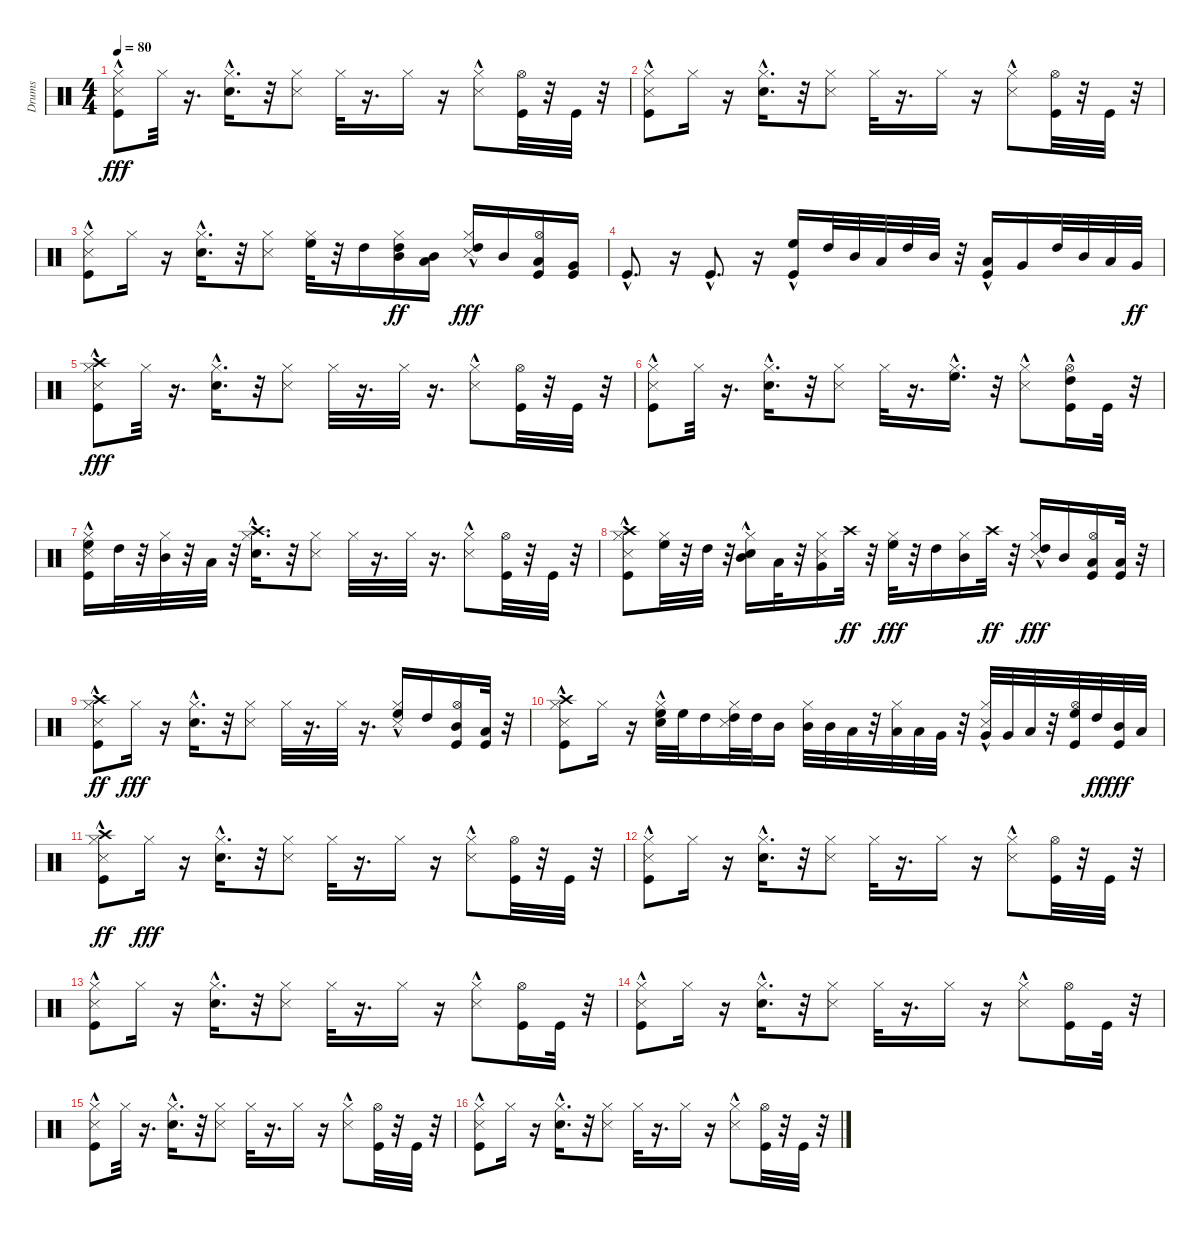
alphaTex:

\track ("Drums" "Drums") {instrument percussion}
\staff {score}
\articulation defaults
\ts (4 4)
\tempo 80
\clef neutral
\ks c
("Snare (side stick) 3" "Kick (hit)"{hac} "Hi-Hat (closed)").8{dy fff} "Hi-Hat (closed)".32 r.16{d} ("Electric Snare (hit)"{hac} "Hi-Hat (closed)").16{d} r.32 ("Snare (side stick) 3" "Hi-Hat (closed)").8 "Hi-Hat (closed)".32 r.16{d} "Hi-Hat (closed)".16 r.16 ("Snare (side stick) 3"{hac} "Hi-Hat (closed)").8 ("Hi-Hat (open)" "Kick (hit)").32 r.32 "Kick (hit)".32 r.32 |
("Snare (side stick) 3" "Kick (hit)"{hac} "Hi-Hat (closed)").8 "Hi-Hat (closed)".16 r.16 ("Hi-Hat (closed)" "Electric Snare (hit)"{hac}).16{d} r.32 ("Hi-Hat (closed)" "Snare (side stick) 3").8 "Hi-Hat (closed)".32 r.16{d} "Hi-Hat (closed)".16 r.16 ("Snare (side stick) 3"{hac} "Hi-Hat (closed)").8 ("Kick (hit)" "Hi-Hat (open)").32 r.32 "Kick (hit)".32 r.32 |
("Snare (side stick) 3" "Kick (hit)"{hac} "Hi-Hat (closed)").8 "Hi-Hat (closed)".16 r.16 ("Electric Snare (hit)"{hac} "Hi-Hat (closed)").16{d} r.32 ("Snare (side stick) 3" "Hi-Hat (closed)").8 ("Hi-Hat (closed)" "High Floor Tom (hit)").32 r.32 "High Tom (hit)".16 ("Mid Tom (hit)" "Hi-Hat (closed)" "High Tom (hit)").16{dy ff} ("Mid Tom (hit)" "Low Tom (hit)").16 ("Snare (side stick) 3"{hac} "Hi-Hat (closed)" "High Tom (hit)").16{dy fff} "Mid Tom (hit)".16 ("Kick (hit)" "Low Tom (hit)" "Hi-Hat (open)").16 ("Kick (hit)" "Very Low Tom (hit)").16 |
"Kick (hit)"{hac}.8{d} r.16 "Kick (hit)"{hac}.8{d} r.16 ("Kick (hit)"{hac} "High Floor Tom (hit)").16 "High Tom (hit)".32 "Mid Tom (hit)".32 "Low Tom (hit)".32 "High Tom (hit)".32 "Mid Tom (hit)".32 r.32 ("Low Tom (hit)" "Kick (hit)"{hac}).16 "Very Low Tom (hit)".16 "High Tom (hit)".32 "Mid Tom (hit)".32 "Low Tom (hit)".32 "Very Low Tom (hit)".32{dy ff} |
("Snare (side stick) 3" "Kick (hit)"{hac} "Hi-Hat (closed)" "Crash high (hit)"{hac}).8{dy fff} "Hi-Hat (closed)".32 r.16{d} ("Hi-Hat (closed)" "Electric Snare (hit)"{hac}).16{d} r.32 ("Snare (side stick) 3" "Hi-Hat (closed)").8 "Hi-Hat (closed)".32 r.16{d} "Hi-Hat (closed)".32 r.16{d} ("Hi-Hat (closed)" "Snare (side stick) 3"{hac}).8 ("Hi-Hat (open)" "Kick (hit)").32 r.32 "Kick (hit)".32 r.32 |
("Snare (side stick) 3" "Kick (hit)"{hac} "Hi-Hat (closed)").8 "Hi-Hat (closed)".32 r.16{d} ("Hi-Hat (closed)" "Electric Snare (hit)"{hac}).16{d} r.32 ("Snare (side stick) 3" "Hi-Hat (closed)").8 "Hi-Hat (closed)".32 r.16{d} ("High Floor Tom (hit)"{hac} "Hi-Hat (closed)").16{d} r.32 ("Snare (side stick) 3"{hac} "Hi-Hat (closed)").8 ("Hi-Hat (open)" "Kick (hit)" "High Tom (hit)"{hac}).16 "Kick (hit)".32 r.32 |
("Snare (side stick) 3" "Kick (hit)"{hac} "Hi-Hat (closed)" "High Floor Tom (hit)").16 "High Tom (hit)".32 r.32 ("Hi-Hat (closed)" "Mid Tom (hit)").32 r.32 "Low Tom (hit)".32 r.32 ("Crash high (hit)" "Electric Snare (hit)"{hac} "Hi-Hat (closed)").16{d} r.32 ("Snare (side stick) 3" "Hi-Hat (closed)").8 "Hi-Hat (closed)".32 r.16{d} "Hi-Hat (closed)".32 r.16{d} ("Snare (side stick) 3"{hac} "Hi-Hat (closed)").8 ("Hi-Hat (open)" "Kick (hit)").32 r.32 "Kick (hit)".32 r.32 |
("Snare (side stick) 3" "Kick (hit)"{hac} "Hi-Hat (closed)" "Crash high (hit)"{hac}).8 ("Hi-Hat (closed)" "High Floor Tom (hit)").32 r.32 "High Tom (hit)".32 r.32 ("Electric Snare (hit)"{hac} "Hi-Hat (closed)" "Mid Tom (hit)").16 "Low Tom (hit)".32 r.32 ("Snare (side stick) 3" "Hi-Hat (closed)" "Very Low Tom (hit)").16 "Crash high (hit)".32{dy ff} r.32 ("Hi-Hat (closed)" "High Floor Tom (hit)").32{dy fff} r.32 "High Tom (hit)".16 ("Hi-Hat (closed)" "Mid Tom (hit)").16 "Crash high (hit)".32{dy ff} r.32 ("Snare (side stick) 3"{hac} "Hi-Hat (closed)" "High Tom (hit)").16{dy fff} "Mid Tom (hit)".16 ("Low Tom (hit)" "Hi-Hat (open)" "Kick (hit)").16 ("Kick (hit)" "Low Tom (hit)").32 r.32 |
("Snare (side stick) 3" "Kick (hit)"{hac} "Hi-Hat (closed)" "Crash high (hit)"{hac}).8{dy ff} "Hi-Hat (closed)".16{dy fff} r.16 ("Electric Snare (hit)"{hac} "Hi-Hat (closed)").16{d} r.32 ("Snare (side stick) 3" "Hi-Hat (closed)").8 "Hi-Hat (closed)".32 r.16{d} "Hi-Hat (closed)".32 r.16{d} ("High Floor Tom (hit)" "Snare (side stick) 3"{hac} "Hi-Hat (closed)").16 "High Tom (hit)".16 ("Hi-Hat (open)" "Kick (hit)" "Mid Tom (hit)").16 ("Kick (hit)" "Low Tom (hit)").32 r.32 |
("Snare (side stick) 3" "Kick (hit)"{hac} "Hi-Hat (closed)" "Crash high (hit)"{hac}).8 "Hi-Hat (closed)".16 r.16 ("High Floor Tom (hit)" "Electric Snare (hit)"{hac} "Hi-Hat (closed)").32 "High Floor Tom (hit)".32 "High Tom (hit)".16 ("Snare (side stick) 3" "Hi-Hat (closed)" "High Tom (hit)").32 "High Tom (hit)".32 "Mid Tom (hit)".16 ("Hi-Hat (closed)" "Mid Tom (hit)").32 "Mid Tom (hit)".32 "Low Tom (hit)".32 r.32 ("Hi-Hat (closed)" "Low Tom (hit)").32 "Low Tom (hit)".32 "Very Low Tom (hit)".32 r.32 ("Very Low Tom (hit)" "Snare (side stick) 3"{hac} "Hi-Hat (closed)").32 "Very Low Tom (hit)".32 "Low Floor Tom (hit)".32 r.32 ("Hi-Hat (open)" "Kick (hit)" "High Floor Tom (hit)").32 "High Tom (hit)".32{dy ff} ("Mid Tom (hit)" "Kick (hit)").32{dy fff} "Low Tom (hit)".32 |
("Snare (side stick) 3" "Kick (hit)"{hac} "Hi-Hat (closed)" "Crash high (hit)"{hac}).8{dy ff} "Hi-Hat (closed)".16{dy fff} r.16 ("Electric Snare (hit)"{hac} "Hi-Hat (closed)").16{d} r.32 ("Snare (side stick) 3" "Hi-Hat (closed)").8 "Hi-Hat (closed)".32 r.16{d} "Hi-Hat (closed)".16 r.16 ("Snare (side stick) 3"{hac} "Hi-Hat (closed)").8 ("Kick (hit)" "Hi-Hat (open)").32 r.32 "Kick (hit)".32 r.32 |
("Snare (side stick) 3" "Kick (hit)"{hac} "Hi-Hat (closed)").8 "Hi-Hat (closed)".16 r.16 ("Electric Snare (hit)"{hac} "Hi-Hat (closed)").16{d} r.32 ("Hi-Hat (closed)" "Snare (side stick) 3").8 "Hi-Hat (closed)".32 r.16{d} "Hi-Hat (closed)".16 r.16 ("Snare (side stick) 3"{hac} "Hi-Hat (closed)").8 ("Kick (hit)" "Hi-Hat (open)").32 r.32 "Kick (hit)".32 r.32 |
("Snare (side stick) 3" "Kick (hit)"{hac} "Hi-Hat (closed)").8 "Hi-Hat (closed)".16 r.16 ("Electric Snare (hit)"{hac} "Hi-Hat (closed)").16{d} r.32 ("Snare (side stick) 3" "Hi-Hat (closed)").8 "Hi-Hat (closed)".32 r.16{d} "Hi-Hat (closed)".16 r.16 ("Snare (side stick) 3"{hac} "Hi-Hat (closed)").8 ("Hi-Hat (open)" "Kick (hit)").16 "Kick (hit)".32 r.32 |
("Snare (side stick) 3" "Kick (hit)"{hac} "Hi-Hat (closed)").8 "Hi-Hat (closed)".16 r.16 ("Hi-Hat (closed)" "Electric Snare (hit)"{hac}).16{d} r.32 ("Snare (side stick) 3" "Hi-Hat (closed)").8 "Hi-Hat (closed)".32 r.16{d} "Hi-Hat (closed)".16 r.16 ("Hi-Hat (closed)" "Snare (side stick) 3"{hac}).8 ("Hi-Hat (open)" "Kick (hit)").16 "Kick (hit)".32 r.32 |
("Snare (side stick) 3" "Kick (hit)"{hac} "Hi-Hat (closed)").8 "Hi-Hat (closed)".32 r.16{d} ("Electric Snare (hit)"{hac} "Hi-Hat (closed)").16{d} r.32 ("Snare (side stick) 3" "Hi-Hat (closed)").8 "Hi-Hat (closed)".32 r.16{d} "Hi-Hat (closed)".16 r.16 ("Snare (side stick) 3"{hac} "Hi-Hat (closed)").8 ("Hi-Hat (open)" "Kick (hit)").32 r.32 "Kick (hit)".32 r.32 |
("Snare (side stick) 3" "Kick (hit)"{hac} "Hi-Hat (closed)").8 "Hi-Hat (closed)".16 r.16 ("Electric Snare (hit)"{hac} "Hi-Hat (closed)").16{d} r.32 ("Hi-Hat (closed)" "Snare (side stick) 3").8 "Hi-Hat (closed)".32 r.16{d} "Hi-Hat (closed)".16 r.16 ("Snare (side stick) 3"{hac} "Hi-Hat (closed)").8 ("Kick (hit)" "Hi-Hat (open)").32 r.32 "Kick (hit)".32 r.32
